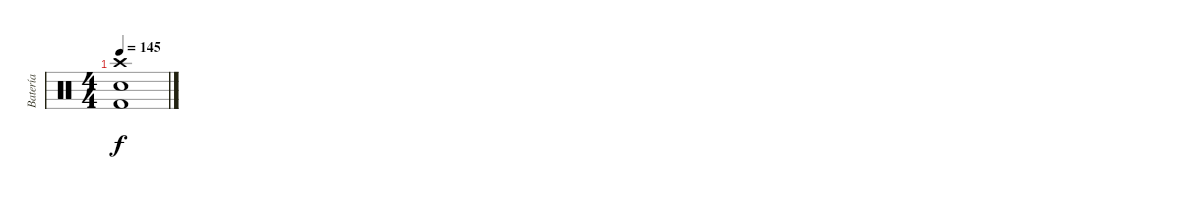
\track ("Batería" "Batería") {instrument percussion}
\staff {score}
\articulation defaults
\ts (4 4)
\tempo 145
\clef neutral
\ks c
("Kick (hit) 2" "Electric Snare (hit)" "Crash high (hit)").1{dy f}
